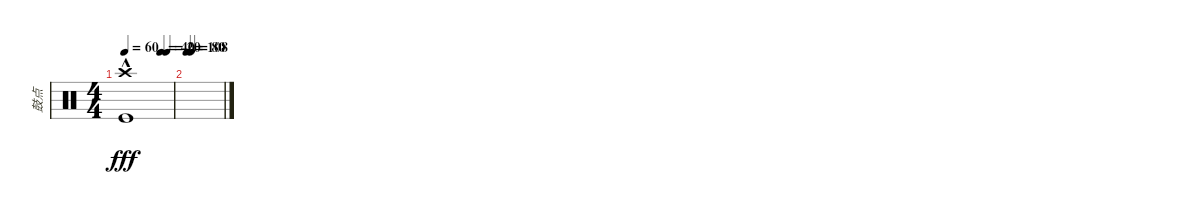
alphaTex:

\track ("鼓点" "鼓点") {instrument percussion}
\staff {score}
\articulation defaults
\ts (4 4)
\tempo 60
\tempo (40 0.75)
\tempo (20 0.875)
\clef neutral
\ks c
("Crash high (hit)"{hac} "Kick (hit)").1{dy fff} |
\tempo 108
\tempo (80 0.125)
